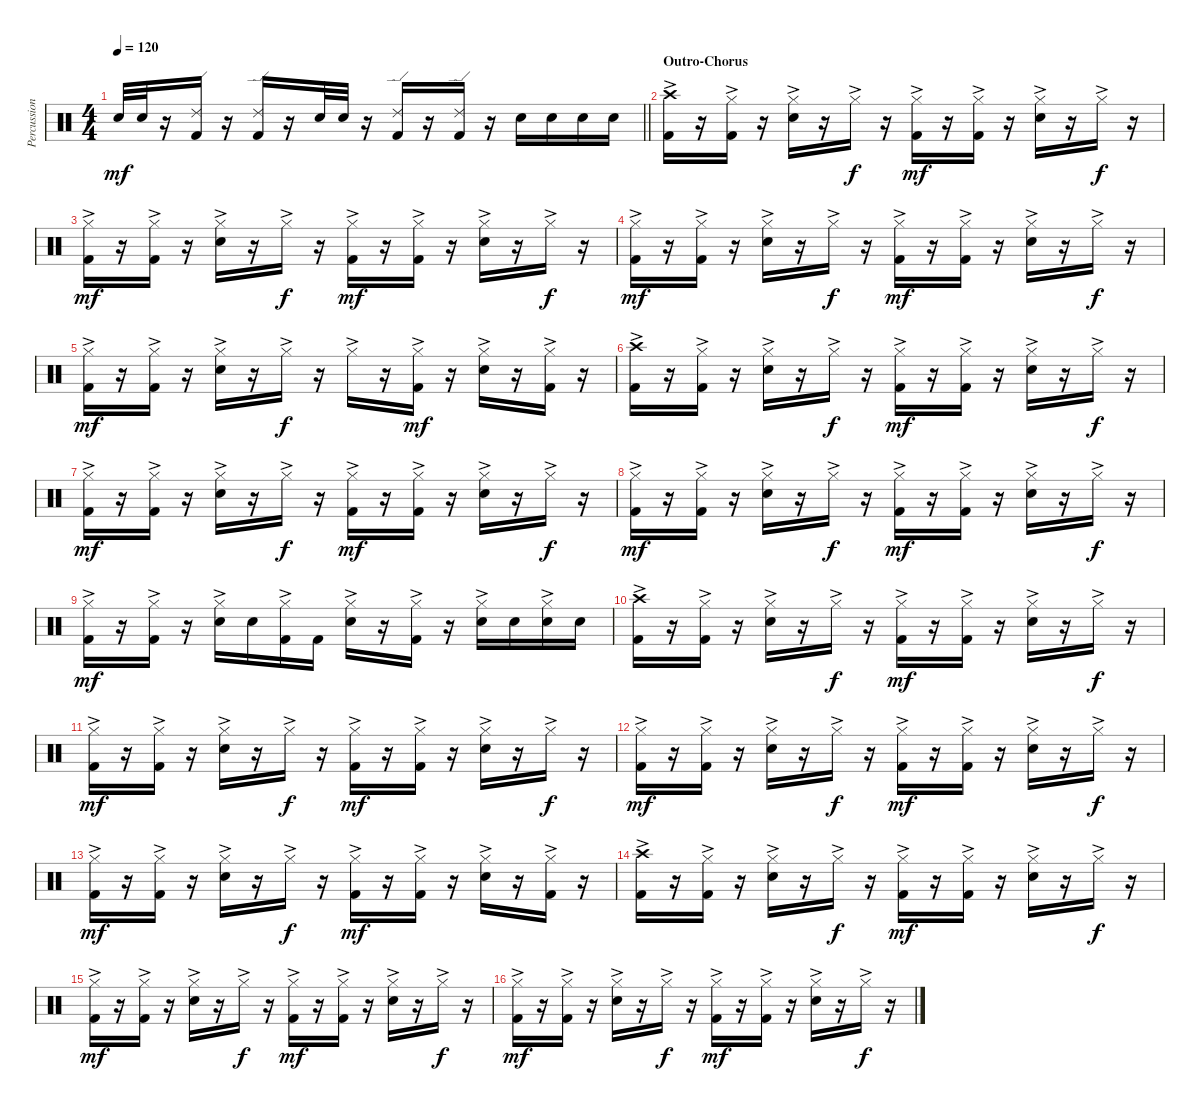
\track ("Percussion" "Percussion") {instrument percussion}
\staff {score}
\articulation defaults
\ts (4 4)
\tempo 120
\clef neutral
\barLineRight lightlight
\ks c "Electric Snare (hit)".32{dy mf} "Electric Snare (hit)".32
r.16 ("Ride (edge) 2" "Kick (hit) 2").16 r.16 ("Ride (edge) 2" "Kick (hit) 2").16 r.16 "Electric Snare (hit)".32 "Electric Snare (hit)".32 r.16 ("Ride (edge) 2" "Kick (hit) 2").16 r.16 ("Ride (edge) 2" "Kick (hit) 2").16 r.16 "Electric Snare (hit)".16 "Electric Snare (hit)".16 "Electric Snare (hit)".16 "Electric Snare (hit)".16 |
\section ("" "Outro-Chorus")
("Crash high (hit)"{ac} "Kick (hit) 2").16 r.16 ("Hi-Hat (closed)"{ac} "Kick (hit) 2").16 r.16 ("Hi-Hat (closed)"{ac} "Electric Snare (hit)").16 r.16 "Hi-Hat (closed)"{ac}.16{dy f} r.16 ("Hi-Hat (closed)"{ac} "Kick (hit) 2").16{dy mf} r.16 ("Hi-Hat (closed)"{ac} "Kick (hit) 2").16 r.16 ("Hi-Hat (closed)"{ac} "Electric Snare (hit)").16 r.16 "Hi-Hat (closed)"{ac}.16{dy f} r.16 |
("Hi-Hat (closed)"{ac} "Kick (hit) 2").16{dy mf} r.16 ("Hi-Hat (closed)"{ac} "Kick (hit) 2").16 r.16 ("Hi-Hat (closed)"{ac} "Electric Snare (hit)").16 r.16 "Hi-Hat (closed)"{ac}.16{dy f} r.16 ("Hi-Hat (closed)"{ac} "Kick (hit) 2").16{dy mf} r.16 ("Hi-Hat (closed)"{ac} "Kick (hit) 2").16 r.16 ("Hi-Hat (closed)"{ac} "Electric Snare (hit)").16 r.16 "Hi-Hat (closed)"{ac}.16{dy f} r.16 |
("Hi-Hat (closed)"{ac} "Kick (hit) 2").16{dy mf} r.16 ("Hi-Hat (closed)"{ac} "Kick (hit) 2").16 r.16 ("Hi-Hat (closed)"{ac} "Electric Snare (hit)").16 r.16 "Hi-Hat (closed)"{ac}.16{dy f} r.16 ("Hi-Hat (closed)"{ac} "Kick (hit) 2").16{dy mf} r.16 ("Hi-Hat (closed)"{ac} "Kick (hit) 2").16 r.16 ("Hi-Hat (closed)"{ac} "Electric Snare (hit)").16 r.16 "Hi-Hat (closed)"{ac}.16{dy f} r.16 |
("Hi-Hat (closed)"{ac} "Kick (hit) 2").16{dy mf} r.16 ("Hi-Hat (closed)"{ac} "Kick (hit) 2").16 r.16 ("Hi-Hat (closed)"{ac} "Electric Snare (hit)").16 r.16 "Hi-Hat (closed)"{ac}.16{dy f} r.16 "Hi-Hat (closed)"{ac}.16 r.16 ("Hi-Hat (closed)"{ac} "Kick (hit) 2").16{dy mf} r.16 ("Hi-Hat (closed)"{ac} "Electric Snare (hit)").16 r.16 ("Hi-Hat (closed)"{ac} "Kick (hit) 2").16 r.16 |
("Crash high (hit)"{ac} "Kick (hit) 2").16 r.16 ("Hi-Hat (closed)"{ac} "Kick (hit) 2").16 r.16 ("Hi-Hat (closed)"{ac} "Electric Snare (hit)").16 r.16 "Hi-Hat (closed)"{ac}.16{dy f} r.16 ("Hi-Hat (closed)"{ac} "Kick (hit) 2").16{dy mf} r.16 ("Hi-Hat (closed)"{ac} "Kick (hit) 2").16 r.16 ("Hi-Hat (closed)"{ac} "Electric Snare (hit)").16 r.16 "Hi-Hat (closed)"{ac}.16{dy f} r.16 |
("Hi-Hat (closed)"{ac} "Kick (hit) 2").16{dy mf} r.16 ("Hi-Hat (closed)"{ac} "Kick (hit) 2").16 r.16 ("Hi-Hat (closed)"{ac} "Electric Snare (hit)").16 r.16 "Hi-Hat (closed)"{ac}.16{dy f} r.16 ("Hi-Hat (closed)"{ac} "Kick (hit) 2").16{dy mf} r.16 ("Hi-Hat (closed)"{ac} "Kick (hit) 2").16 r.16 ("Hi-Hat (closed)"{ac} "Electric Snare (hit)").16 r.16 "Hi-Hat (closed)"{ac}.16{dy f} r.16 |
("Hi-Hat (closed)"{ac} "Kick (hit) 2").16{dy mf} r.16 ("Hi-Hat (closed)"{ac} "Kick (hit) 2").16 r.16 ("Hi-Hat (closed)"{ac} "Electric Snare (hit)").16 r.16 "Hi-Hat (closed)"{ac}.16{dy f} r.16 ("Hi-Hat (closed)"{ac} "Kick (hit) 2").16{dy mf} r.16 ("Hi-Hat (closed)"{ac} "Kick (hit) 2").16 r.16 ("Hi-Hat (closed)"{ac} "Electric Snare (hit)").16 r.16 "Hi-Hat (closed)"{ac}.16{dy f} r.16 |
("Hi-Hat (closed)"{ac} "Kick (hit) 2").16{dy mf} r.16 ("Hi-Hat (closed)"{ac} "Kick (hit) 2").16 r.16 ("Hi-Hat (closed)"{ac} "Electric Snare (hit)").16 "Electric Snare (hit)".16 ("Hi-Hat (closed)"{ac} "Kick (hit) 2").16 "Kick (hit) 2".16 ("Hi-Hat (closed)"{ac} "Electric Snare (hit)").16 r.16 ("Hi-Hat (closed)"{ac} "Kick (hit) 2").16 r.16 ("Hi-Hat (closed)"{ac} "Electric Snare (hit)").16 "Electric Snare (hit)".16 ("Hi-Hat (closed)"{ac} "Electric Snare (hit)").16 "Electric Snare (hit)".16 |
("Crash high (hit)"{ac} "Kick (hit) 2").16 r.16 ("Hi-Hat (closed)"{ac} "Kick (hit) 2").16 r.16 ("Hi-Hat (closed)"{ac} "Electric Snare (hit)").16 r.16 "Hi-Hat (closed)"{ac}.16{dy f} r.16 ("Hi-Hat (closed)"{ac} "Kick (hit) 2").16{dy mf} r.16 ("Hi-Hat (closed)"{ac} "Kick (hit) 2").16 r.16 ("Hi-Hat (closed)"{ac} "Electric Snare (hit)").16 r.16 "Hi-Hat (closed)"{ac}.16{dy f} r.16 |
("Hi-Hat (closed)"{ac} "Kick (hit) 2").16{dy mf} r.16 ("Hi-Hat (closed)"{ac} "Kick (hit) 2").16 r.16 ("Hi-Hat (closed)"{ac} "Electric Snare (hit)").16 r.16 "Hi-Hat (closed)"{ac}.16{dy f} r.16 ("Hi-Hat (closed)"{ac} "Kick (hit) 2").16{dy mf} r.16 ("Hi-Hat (closed)"{ac} "Kick (hit) 2").16 r.16 ("Hi-Hat (closed)"{ac} "Electric Snare (hit)").16 r.16 "Hi-Hat (closed)"{ac}.16{dy f} r.16 |
("Hi-Hat (closed)"{ac} "Kick (hit) 2").16{dy mf} r.16 ("Hi-Hat (closed)"{ac} "Kick (hit) 2").16 r.16 ("Hi-Hat (closed)"{ac} "Electric Snare (hit)").16 r.16 "Hi-Hat (closed)"{ac}.16{dy f} r.16 ("Hi-Hat (closed)"{ac} "Kick (hit) 2").16{dy mf} r.16 ("Hi-Hat (closed)"{ac} "Kick (hit) 2").16 r.16 ("Hi-Hat (closed)"{ac} "Electric Snare (hit)").16 r.16 "Hi-Hat (closed)"{ac}.16{dy f} r.16 |
("Hi-Hat (closed)"{ac} "Kick (hit) 2").16{dy mf} r.16 ("Hi-Hat (closed)"{ac} "Kick (hit) 2").16 r.16 ("Hi-Hat (closed)"{ac} "Electric Snare (hit)").16 r.16 "Hi-Hat (closed)"{ac}.16{dy f} r.16 ("Hi-Hat (closed)"{ac} "Kick (hit) 2").16{dy mf} r.16 ("Hi-Hat (closed)"{ac} "Kick (hit) 2").16 r.16 ("Hi-Hat (closed)"{ac} "Electric Snare (hit)").16 r.16 ("Hi-Hat (closed)"{ac} "Kick (hit) 2").16 r.16 |
("Crash high (hit)"{ac} "Kick (hit) 2").16 r.16 ("Hi-Hat (closed)"{ac} "Kick (hit) 2").16 r.16 ("Hi-Hat (closed)"{ac} "Electric Snare (hit)").16 r.16 "Hi-Hat (closed)"{ac}.16{dy f} r.16 ("Hi-Hat (closed)"{ac} "Kick (hit) 2").16{dy mf} r.16 ("Hi-Hat (closed)"{ac} "Kick (hit) 2").16 r.16 ("Hi-Hat (closed)"{ac} "Electric Snare (hit)").16 r.16 "Hi-Hat (closed)"{ac}.16{dy f} r.16 |
("Hi-Hat (closed)"{ac} "Kick (hit) 2").16{dy mf} r.16 ("Hi-Hat (closed)"{ac} "Kick (hit) 2").16 r.16 ("Hi-Hat (closed)"{ac} "Electric Snare (hit)").16 r.16 "Hi-Hat (closed)"{ac}.16{dy f} r.16 ("Hi-Hat (closed)"{ac} "Kick (hit) 2").16{dy mf} r.16 ("Hi-Hat (closed)"{ac} "Kick (hit) 2").16 r.16 ("Hi-Hat (closed)"{ac} "Electric Snare (hit)").16 r.16 "Hi-Hat (closed)"{ac}.16{dy f} r.16 |
("Hi-Hat (closed)"{ac} "Kick (hit) 2").16{dy mf} r.16 ("Hi-Hat (closed)"{ac} "Kick (hit) 2").16 r.16 ("Hi-Hat (closed)"{ac} "Electric Snare (hit)").16 r.16 "Hi-Hat (closed)"{ac}.16{dy f} r.16 ("Hi-Hat (closed)"{ac} "Kick (hit) 2").16{dy mf} r.16 ("Hi-Hat (closed)"{ac} "Kick (hit) 2").16 r.16 ("Hi-Hat (closed)"{ac} "Electric Snare (hit)").16 r.16 "Hi-Hat (closed)"{ac}.16{dy f} r.16
